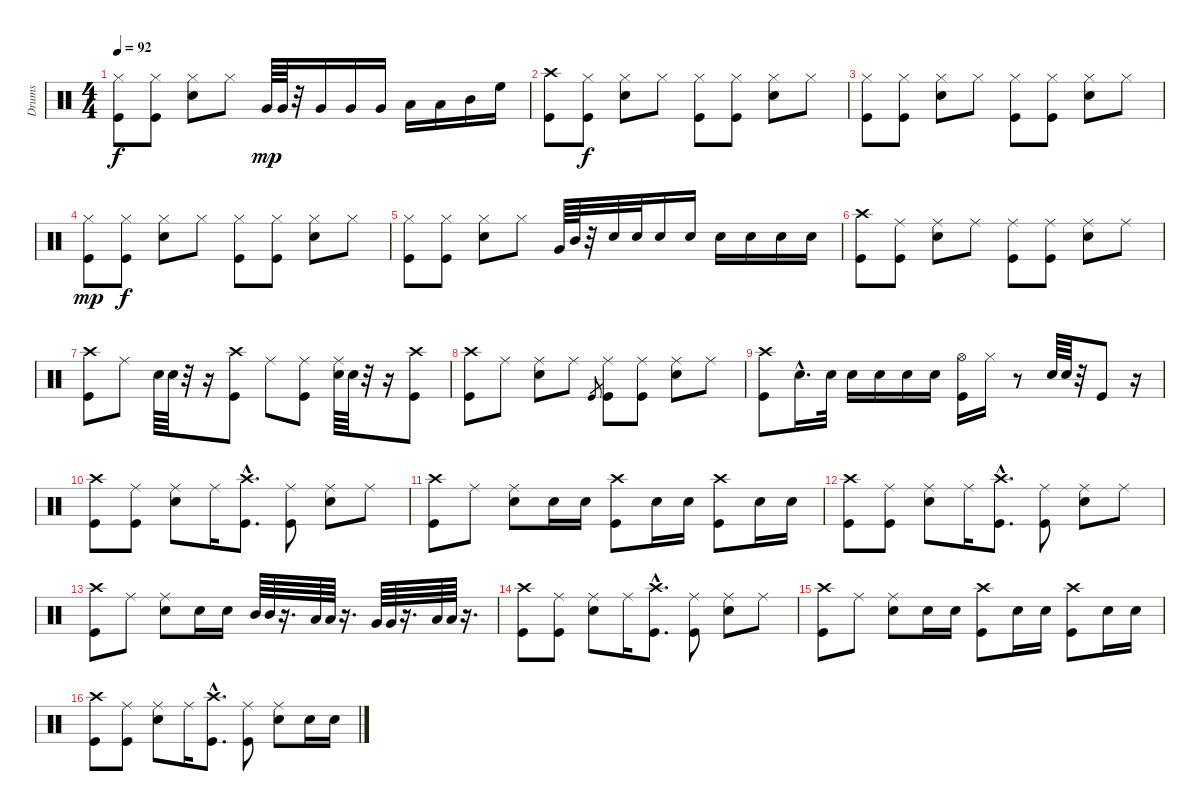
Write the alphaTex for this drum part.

\track ("Drums" "Drums") {instrument percussion}
\staff {score}
\articulation defaults
\ts (4 4)
\tempo 92
\clef neutral
\ks c
("Hi-Hat (closed)" "Kick (hit)").8{dy f} ("Hi-Hat (closed)" "Kick (hit)").8 ("Hi-Hat (closed)" "Snare (hit) 2").8 "Hi-Hat (closed)".8 "Very Low Tom (hit)".64{dy mp} "Very Low Tom (hit)".64 r.32 "Very Low Tom (hit)".16 "Very Low Tom (hit)".16 "Very Low Tom (hit)".16 "Low Tom (hit)".16 "Low Tom (hit)".16 "Mid Tom (hit)".16 "High Floor Tom (hit)".16 |
("Crash high (hit)" "Kick (hit)").8 ("Hi-Hat (closed)" "Kick (hit)").8{dy f} ("Hi-Hat (closed)" "Snare (hit) 2").8 "Hi-Hat (closed)".8 ("Hi-Hat (closed)" "Kick (hit)").8 ("Hi-Hat (closed)" "Kick (hit)").8 ("Hi-Hat (closed)" "Snare (hit) 2").8 "Hi-Hat (closed)".8 |
("Hi-Hat (closed)" "Kick (hit)").8 ("Hi-Hat (closed)" "Kick (hit)").8 ("Hi-Hat (closed)" "Snare (hit) 2").8 "Hi-Hat (closed)".8 ("Hi-Hat (closed)" "Kick (hit)").8 ("Hi-Hat (closed)" "Kick (hit)").8 ("Hi-Hat (closed)" "Snare (hit) 2").8 "Hi-Hat (closed)".8 |
("Hi-Hat (closed)" "Kick (hit)").8{dy mp} ("Hi-Hat (closed)" "Kick (hit)").8{dy f} ("Hi-Hat (closed)" "Snare (hit) 2").8 "Hi-Hat (closed)".8 ("Hi-Hat (closed)" "Kick (hit)").8 ("Hi-Hat (closed)" "Kick (hit)").8 ("Hi-Hat (closed)" "Snare (hit) 2").8 "Hi-Hat (closed)".8 |
("Hi-Hat (closed)" "Kick (hit)").8 ("Hi-Hat (closed)" "Kick (hit)").8 ("Hi-Hat (closed)" "Snare (hit) 2").8 "Hi-Hat (closed)".8 "Very Low Tom (hit)".64 "Mid Tom (hit)".64 r.32 "Snare (hit) 2".32 "Snare (hit) 2".32 "Snare (hit) 2".16 "Snare (hit) 2".16 "Snare (hit) 2".16 "Snare (hit) 2".16 "Snare (hit) 2".16 "Snare (hit) 2".16 |
("Crash high (hit)" "Kick (hit)").8 ("Ride (middle)" "Kick (hit)").8 ("Ride (middle)" "Snare (hit) 2").8 "Ride (middle)".8 ("Ride (middle)" "Kick (hit)").8 ("Ride (middle)" "Kick (hit)").8 ("Ride (middle)" "Snare (hit) 2").8 "Ride (middle)".8 |
("Crash high (hit)" "Kick (hit)").8 "Ride (middle)".8 "Snare (hit) 2".64 "Snare (hit) 2".64 r.32 r.16 ("Crash high (hit)" "Kick (hit)").8 "Ride (middle)".8 ("Ride (middle)" "Kick (hit)").8 ("Ride (middle)" "Snare (hit) 2").64 "Snare (hit) 2".64 r.32 r.16 ("Crash high (hit)" "Kick (hit)").8 |
("Crash high (hit)" "Kick (hit)").8 "Ride (middle)".8 ("Ride (middle)" "Snare (hit) 2").8 "Ride (middle)".8 "Kick (hit)".8{gr} ("Ride (middle)" "Kick (hit)").8 ("Ride (middle)" "Kick (hit)").8 ("Ride (middle)" "Snare (hit) 2").8 "Ride (middle)".8 |
("Crash high (hit)" "Kick (hit)").8 "Snare (hit) 2"{hac}.16{d} "Snare (hit) 2".32 "Snare (hit) 2".16 "Snare (hit) 2".16 "Snare (hit) 2".16 "Snare (hit) 2".16 ("Hi-Hat (open)" "Kick (hit)").16 "Hi-Hat (closed)".16 r.8 "Snare (hit) 2".64 "Snare (hit) 2".64 r.32 "Kick (hit)".8 r.16 |
("Crash high (hit)" "Kick (hit)").8 ("Ride (middle)" "Kick (hit)").8 ("Ride (middle)" "Snare (hit) 2").8 "Ride (middle)".16 ("Crash high (hit)"{hac} "Kick (hit)"{hac}).8{d} ("Ride (middle)" "Kick (hit)").8 ("Ride (middle)" "Snare (hit) 2").8 "Ride (middle)".8 |
("Crash high (hit)" "Kick (hit)").8 "Ride (middle)".8 ("Ride (middle)" "Snare (hit) 2").8 "Snare (hit) 2".16 "Snare (hit) 2".16 ("Crash high (hit)" "Kick (hit)").8 "Snare (hit) 2".16 "Snare (hit) 2".16 ("Crash high (hit)" "Kick (hit)").8 "Snare (hit) 2".16 "Snare (hit) 2".16 |
("Crash high (hit)" "Kick (hit)").8 ("Ride (middle)" "Kick (hit)").8 ("Ride (middle)" "Snare (hit) 2").8 "Ride (middle)".16 ("Crash high (hit)"{hac} "Kick (hit)"{hac}).8{d} ("Ride (middle)" "Kick (hit)").8 ("Ride (middle)" "Snare (hit) 2").8 "Ride (middle)".8 |
("Crash high (hit)" "Kick (hit)").8 "Ride (middle)".8 ("Ride (middle)" "Snare (hit) 2").8 "Snare (hit) 2".16 "Snare (hit) 2".16 "Mid Tom (hit)".64 "Mid Tom (hit)".64 r.16{d} "Low Tom (hit)".64 "Low Tom (hit)".64 r.16{d} "Very Low Tom (hit)".64 "Very Low Tom (hit)".64 r.16{d} "Low Floor Tom (hit)".64 "Low Floor Tom (hit)".64 r.16{d} |
("Crash high (hit)" "Kick (hit)").8 ("Ride (middle)" "Kick (hit)").8 ("Ride (middle)" "Snare (hit) 2").8 "Ride (middle)".16 ("Crash high (hit)"{hac} "Kick (hit)"{hac}).8{d} ("Ride (middle)" "Kick (hit)").8 ("Ride (middle)" "Snare (hit) 2").8 "Ride (middle)".8 |
("Crash high (hit)" "Kick (hit)").8 "Ride (middle)".8 ("Ride (middle)" "Snare (hit) 2").8 "Snare (hit) 2".16 "Snare (hit) 2".16 ("Crash high (hit)" "Kick (hit)").8 "Snare (hit) 2".16 "Snare (hit) 2".16 ("Crash high (hit)" "Kick (hit)").8 "Snare (hit) 2".16 "Snare (hit) 2".16 |
("Crash high (hit)" "Kick (hit)").8 ("Ride (middle)" "Kick (hit)").8 ("Ride (middle)" "Snare (hit) 2").8 "Ride (middle)".16 ("Crash high (hit)"{hac} "Kick (hit)"{hac}).8{d} ("Ride (middle)" "Kick (hit)").8 ("Ride (middle)" "Snare (hit) 2").8 "Snare (hit) 2".16 "Snare (hit) 2".16
